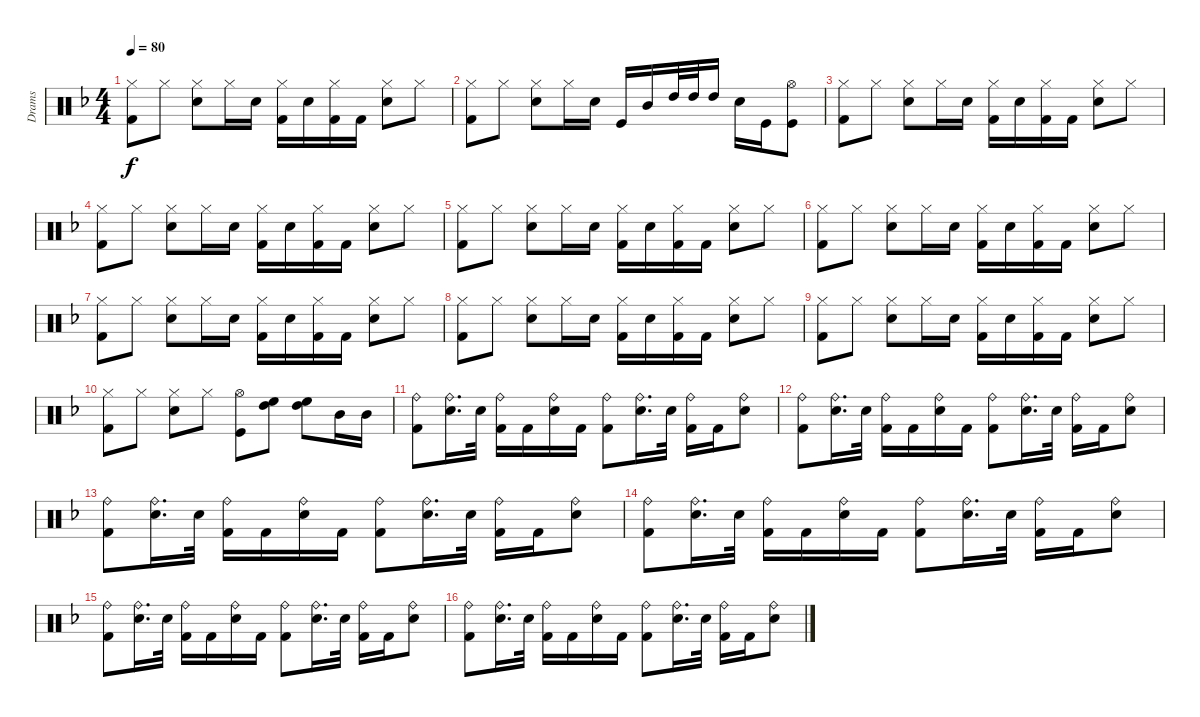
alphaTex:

\track ("Drams" "Drams") {instrument percussion}
\staff {score}
\articulation defaults
\ts (4 4)
\tempo 80
\clef neutral
\ks dminor
("Kick (hit) 2" "Hi-Hat (closed)").8{dy f} "Hi-Hat (closed)".8 ("Electric Snare (hit)" "Hi-Hat (closed)").8 "Hi-Hat (closed)".16 "Electric Snare (hit)".16 ("Kick (hit) 2" "Hi-Hat (closed)").16 "Electric Snare (hit)".16 ("Kick (hit) 2" "Hi-Hat (closed)").16 "Kick (hit) 2".16 ("Electric Snare (hit)" "Hi-Hat (closed)").8 "Hi-Hat (closed)".8 |
("Kick (hit) 2" "Hi-Hat (closed)").8 "Hi-Hat (closed)".8 ("Electric Snare (hit)" "Hi-Hat (closed)").8 "Hi-Hat (closed)".16 "Electric Snare (hit)".16 "Kick (hit)".16 "Mid Tom (hit)".16 "High Tom (hit)".32 "High Tom (hit)".32 "High Tom (hit)".16 "Snare (hit) 2".16 "Kick (hit)".16 ("Kick (hit)" "Hi-Hat (open)").8 |
("Kick (hit) 2" "Hi-Hat (closed)").8 "Hi-Hat (closed)".8 ("Electric Snare (hit)" "Hi-Hat (closed)").8 "Hi-Hat (closed)".16 "Electric Snare (hit)".16 ("Kick (hit) 2" "Hi-Hat (closed)").16 "Electric Snare (hit)".16 ("Kick (hit) 2" "Hi-Hat (closed)").16 "Kick (hit) 2".16 ("Electric Snare (hit)" "Hi-Hat (closed)").8 "Hi-Hat (closed)".8 |
("Kick (hit) 2" "Hi-Hat (closed)").8 "Hi-Hat (closed)".8 ("Electric Snare (hit)" "Hi-Hat (closed)").8 "Hi-Hat (closed)".16 "Electric Snare (hit)".16 ("Kick (hit) 2" "Hi-Hat (closed)").16 "Electric Snare (hit)".16 ("Kick (hit) 2" "Hi-Hat (closed)").16 "Kick (hit) 2".16 ("Electric Snare (hit)" "Hi-Hat (closed)").8 "Hi-Hat (closed)".8 |
("Kick (hit) 2" "Hi-Hat (closed)").8 "Hi-Hat (closed)".8 ("Electric Snare (hit)" "Hi-Hat (closed)").8 "Hi-Hat (closed)".16 "Electric Snare (hit)".16 ("Kick (hit) 2" "Hi-Hat (closed)").16 "Electric Snare (hit)".16 ("Kick (hit) 2" "Hi-Hat (closed)").16 "Kick (hit) 2".16 ("Electric Snare (hit)" "Hi-Hat (closed)").8 "Hi-Hat (closed)".8 |
("Kick (hit) 2" "Hi-Hat (closed)").8 "Hi-Hat (closed)".8 ("Electric Snare (hit)" "Hi-Hat (closed)").8 "Hi-Hat (closed)".16 "Electric Snare (hit)".16 ("Kick (hit) 2" "Hi-Hat (closed)").16 "Electric Snare (hit)".16 ("Kick (hit) 2" "Hi-Hat (closed)").16 "Kick (hit) 2".16 ("Electric Snare (hit)" "Hi-Hat (closed)").8 "Hi-Hat (closed)".8 |
("Kick (hit) 2" "Hi-Hat (closed)").8 "Hi-Hat (closed)".8 ("Electric Snare (hit)" "Hi-Hat (closed)").8 "Hi-Hat (closed)".16 "Electric Snare (hit)".16 ("Kick (hit) 2" "Hi-Hat (closed)").16 "Electric Snare (hit)".16 ("Kick (hit) 2" "Hi-Hat (closed)").16 "Kick (hit) 2".16 ("Electric Snare (hit)" "Hi-Hat (closed)").8 "Hi-Hat (closed)".8 |
("Kick (hit) 2" "Hi-Hat (closed)").8 "Hi-Hat (closed)".8 ("Electric Snare (hit)" "Hi-Hat (closed)").8 "Hi-Hat (closed)".16 "Electric Snare (hit)".16 ("Kick (hit) 2" "Hi-Hat (closed)").16 "Electric Snare (hit)".16 ("Kick (hit) 2" "Hi-Hat (closed)").16 "Kick (hit) 2".16 ("Electric Snare (hit)" "Hi-Hat (closed)").8 "Hi-Hat (closed)".8 |
("Kick (hit) 2" "Hi-Hat (closed)").8 "Hi-Hat (closed)".8 ("Electric Snare (hit)" "Hi-Hat (closed)").8 "Hi-Hat (closed)".16 "Electric Snare (hit)".16 ("Kick (hit) 2" "Hi-Hat (closed)").16 "Electric Snare (hit)".16 ("Kick (hit) 2" "Hi-Hat (closed)").16 "Kick (hit) 2".16 ("Electric Snare (hit)" "Hi-Hat (closed)").8 "Hi-Hat (closed)".8 |
("Kick (hit) 2" "Hi-Hat (closed)").8 "Hi-Hat (closed)".8 ("Electric Snare (hit)" "Hi-Hat (closed)").8 "Hi-Hat (closed)".8 ("Kick (hit)" "Hi-Hat (open)").8 ("High Tom (hit)" "High Floor Tom (hit)").8 ("High Tom (hit)" "High Floor Tom (hit)").8 "Mid Tom (hit)".16 "Mid Tom (hit)".16 |
("Kick (hit) 2" "Ride (bell)").8 ("Ride (bell)" "Electric Snare (hit)").16{d} "Electric Snare (hit)".32 ("Ride (bell)" "Kick (hit) 2").16 "Kick (hit) 2".16 ("Ride (bell)" "Electric Snare (hit)").16 "Kick (hit) 2".16 ("Kick (hit) 2" "Ride (bell)").8 ("Electric Snare (hit)" "Ride (bell)").16{d} "Electric Snare (hit)".32 ("Kick (hit) 2" "Ride (bell)").16 "Kick (hit) 2".16 ("Electric Snare (hit)" "Ride (bell)").8 |
("Kick (hit) 2" "Ride (bell)").8 ("Ride (bell)" "Electric Snare (hit)").16{d} "Electric Snare (hit)".32 ("Ride (bell)" "Kick (hit) 2").16 "Kick (hit) 2".16 ("Ride (bell)" "Electric Snare (hit)").16 "Kick (hit) 2".16 ("Kick (hit) 2" "Ride (bell)").8 ("Electric Snare (hit)" "Ride (bell)").16{d} "Electric Snare (hit)".32 ("Kick (hit) 2" "Ride (bell)").16 "Kick (hit) 2".16 ("Electric Snare (hit)" "Ride (bell)").8 |
("Kick (hit) 2" "Ride (bell)").8 ("Ride (bell)" "Electric Snare (hit)").16{d} "Electric Snare (hit)".32 ("Ride (bell)" "Kick (hit) 2").16 "Kick (hit) 2".16 ("Ride (bell)" "Electric Snare (hit)").16 "Kick (hit) 2".16 ("Kick (hit) 2" "Ride (bell)").8 ("Electric Snare (hit)" "Ride (bell)").16{d} "Electric Snare (hit)".32 ("Kick (hit) 2" "Ride (bell)").16 "Kick (hit) 2".16 ("Electric Snare (hit)" "Ride (bell)").8 |
("Kick (hit) 2" "Ride (bell)").8 ("Ride (bell)" "Electric Snare (hit)").16{d} "Electric Snare (hit)".32 ("Ride (bell)" "Kick (hit) 2").16 "Kick (hit) 2".16 ("Ride (bell)" "Electric Snare (hit)").16 "Kick (hit) 2".16 ("Kick (hit) 2" "Ride (bell)").8 ("Electric Snare (hit)" "Ride (bell)").16{d} "Electric Snare (hit)".32 ("Kick (hit) 2" "Ride (bell)").16 "Kick (hit) 2".16 ("Electric Snare (hit)" "Ride (bell)").8 |
("Kick (hit) 2" "Ride (bell)").8 ("Ride (bell)" "Electric Snare (hit)").16{d} "Electric Snare (hit)".32 ("Ride (bell)" "Kick (hit) 2").16 "Kick (hit) 2".16 ("Ride (bell)" "Electric Snare (hit)").16 "Kick (hit) 2".16 ("Kick (hit) 2" "Ride (bell)").8 ("Electric Snare (hit)" "Ride (bell)").16{d} "Electric Snare (hit)".32 ("Kick (hit) 2" "Ride (bell)").16 "Kick (hit) 2".16 ("Electric Snare (hit)" "Ride (bell)").8 |
("Kick (hit) 2" "Ride (bell)").8 ("Ride (bell)" "Electric Snare (hit)").16{d} "Electric Snare (hit)".32 ("Ride (bell)" "Kick (hit) 2").16 "Kick (hit) 2".16 ("Ride (bell)" "Electric Snare (hit)").16 "Kick (hit) 2".16 ("Kick (hit) 2" "Ride (bell)").8 ("Electric Snare (hit)" "Ride (bell)").16{d} "Electric Snare (hit)".32 ("Kick (hit) 2" "Ride (bell)").16 "Kick (hit) 2".16 ("Electric Snare (hit)" "Ride (bell)").8
